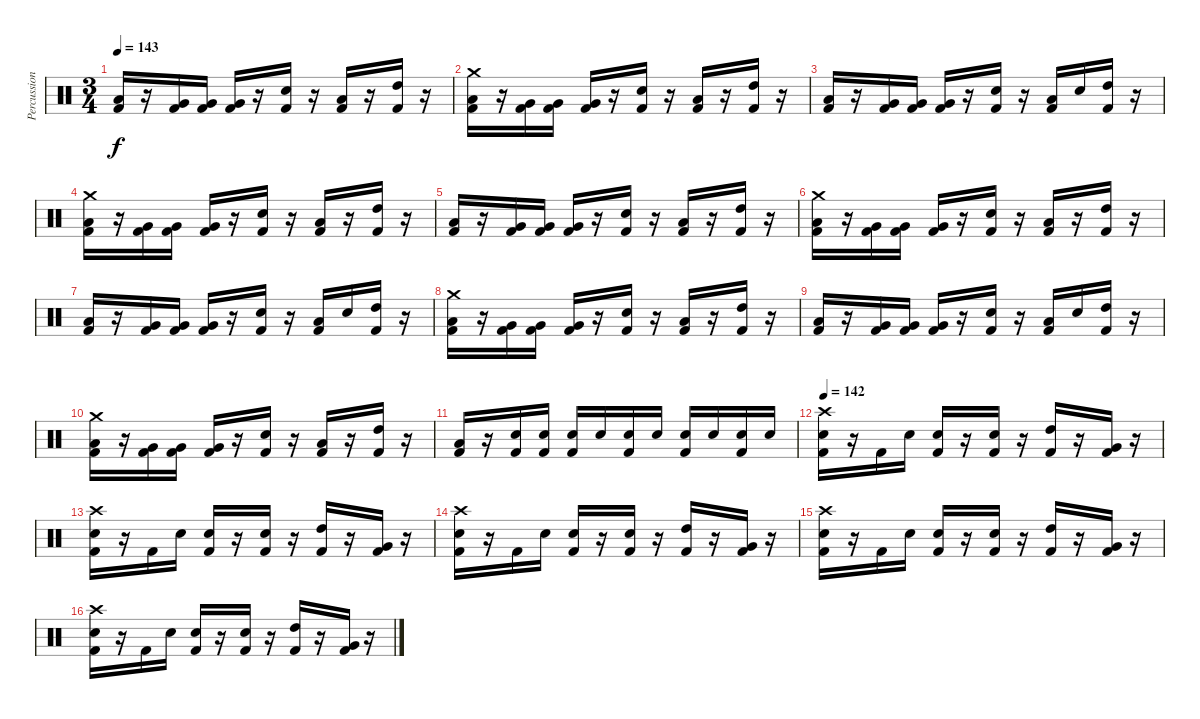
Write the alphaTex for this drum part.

\track ("Percussion" "Percussion") {instrument percussion}
\staff {score}
\articulation defaults
\ts (3 4)
\tempo 143
\clef neutral
\ks c
("Low Tom (hit)" "Kick (hit) 2").16{dy f} r.16 ("Very Low Tom (hit)" "Kick (hit) 2").16 ("Very Low Tom (hit)" "Kick (hit) 2").16 ("Very Low Tom (hit)" "Kick (hit) 2").16 r.16 ("Snare (hit) 2" "Kick (hit) 2").16 r.16 ("Low Tom (hit)" "Kick (hit) 2").16 r.16 ("High Tom (hit)" "Kick (hit) 2").16 r.16 |
("Crash medium (hit)" "Low Tom (hit)" "Kick (hit) 2").16 r.16 ("Very Low Tom (hit)" "Kick (hit) 2").16 ("Very Low Tom (hit)" "Kick (hit) 2").16 ("Very Low Tom (hit)" "Kick (hit) 2").16 r.16 ("Snare (hit) 2" "Kick (hit) 2").16 r.16 ("Low Tom (hit)" "Kick (hit) 2").16 r.16 ("High Tom (hit)" "Kick (hit) 2").16 r.16 |
("Low Tom (hit)" "Kick (hit) 2").16 r.16 ("Very Low Tom (hit)" "Kick (hit) 2").16 ("Very Low Tom (hit)" "Kick (hit) 2").16 ("Very Low Tom (hit)" "Kick (hit) 2").16 r.16 ("Snare (hit) 2" "Kick (hit) 2").16 r.16 ("Low Tom (hit)" "Kick (hit) 2").16 "Electric Snare (hit)".16 ("High Tom (hit)" "Kick (hit) 2").16 r.16 |
("Crash medium (hit)" "Low Tom (hit)" "Kick (hit) 2").16 r.16 ("Very Low Tom (hit)" "Kick (hit) 2").16 ("Very Low Tom (hit)" "Kick (hit) 2").16 ("Very Low Tom (hit)" "Kick (hit) 2").16 r.16 ("Snare (hit) 2" "Kick (hit) 2").16 r.16 ("Low Tom (hit)" "Kick (hit) 2").16 r.16 ("High Tom (hit)" "Kick (hit) 2").16 r.16 |
("Low Tom (hit)" "Kick (hit) 2").16 r.16 ("Very Low Tom (hit)" "Kick (hit) 2").16 ("Very Low Tom (hit)" "Kick (hit) 2").16 ("Very Low Tom (hit)" "Kick (hit) 2").16 r.16 ("Snare (hit) 2" "Kick (hit) 2").16 r.16 ("Low Tom (hit)" "Kick (hit) 2").16 r.16 ("High Tom (hit)" "Kick (hit) 2").16 r.16 |
("Crash medium (hit)" "Low Tom (hit)" "Kick (hit) 2").16 r.16 ("Very Low Tom (hit)" "Kick (hit) 2").16 ("Very Low Tom (hit)" "Kick (hit) 2").16 ("Very Low Tom (hit)" "Kick (hit) 2").16 r.16 ("Snare (hit) 2" "Kick (hit) 2").16 r.16 ("Low Tom (hit)" "Kick (hit) 2").16 r.16 ("High Tom (hit)" "Kick (hit) 2").16 r.16 |
("Low Tom (hit)" "Kick (hit) 2").16 r.16 ("Very Low Tom (hit)" "Kick (hit) 2").16 ("Very Low Tom (hit)" "Kick (hit) 2").16 ("Very Low Tom (hit)" "Kick (hit) 2").16 r.16 ("Snare (hit) 2" "Kick (hit) 2").16 r.16 ("Low Tom (hit)" "Kick (hit) 2").16 "Electric Snare (hit)".16 ("High Tom (hit)" "Kick (hit) 2").16 r.16 |
("Crash medium (hit)" "Low Tom (hit)" "Kick (hit) 2").16 r.16 ("Very Low Tom (hit)" "Kick (hit) 2").16 ("Very Low Tom (hit)" "Kick (hit) 2").16 ("Very Low Tom (hit)" "Kick (hit) 2").16 r.16 ("Snare (hit) 2" "Kick (hit) 2").16 r.16 ("Low Tom (hit)" "Kick (hit) 2").16 r.16 ("High Tom (hit)" "Kick (hit) 2").16 r.16 |
("Low Tom (hit)" "Kick (hit) 2").16 r.16 ("Very Low Tom (hit)" "Kick (hit) 2").16 ("Very Low Tom (hit)" "Kick (hit) 2").16 ("Very Low Tom (hit)" "Kick (hit) 2").16 r.16 ("Snare (hit) 2" "Kick (hit) 2").16 r.16 ("Low Tom (hit)" "Kick (hit) 2").16 "Electric Snare (hit)".16 ("High Tom (hit)" "Kick (hit) 2").16 r.16 |
("Crash medium (hit)" "Low Tom (hit)" "Kick (hit) 2").16 r.16 ("Very Low Tom (hit)" "Kick (hit) 2").16 ("Very Low Tom (hit)" "Kick (hit) 2").16 ("Very Low Tom (hit)" "Kick (hit) 2").16 r.16 ("Snare (hit) 2" "Kick (hit) 2").16 r.16 ("Low Tom (hit)" "Kick (hit) 2").16 r.16 ("High Tom (hit)" "Kick (hit) 2").16 r.16 |
("Low Tom (hit)" "Kick (hit) 2").16 r.16 ("Electric Snare (hit)" "Kick (hit) 2").16 ("Electric Snare (hit)" "Kick (hit) 2").16 ("Electric Snare (hit)" "Kick (hit) 2").16 "Electric Snare (hit)".16 ("Snare (hit) 2" "Kick (hit) 2").16 "Snare (hit) 2".16 ("Electric Snare (hit)" "Kick (hit) 2").16 "Electric Snare (hit)".16 ("Electric Snare (hit)" "Kick (hit) 2").16 "Electric Snare (hit)".16 |
\tempo 142
("Crash high (hit)" "Snare (hit) 2" "Kick (hit) 2").16 r.16 "Kick (hit) 2".16 "Snare (hit) 2".16 ("Snare (hit) 2" "Kick (hit) 2").16 r.16 ("Snare (hit) 2" "Kick (hit) 2").16 r.16 ("High Tom (hit)" "Kick (hit) 2").16 r.16 ("Very Low Tom (hit)" "Kick (hit) 2").16 r.16 |
("Crash high (hit)" "Snare (hit) 2" "Kick (hit) 2").16 r.16 "Kick (hit) 2".16 "Snare (hit) 2".16 ("Snare (hit) 2" "Kick (hit) 2").16 r.16 ("Snare (hit) 2" "Kick (hit) 2").16 r.16 ("High Tom (hit)" "Kick (hit) 2").16 r.16 ("Very Low Tom (hit)" "Kick (hit) 2").16 r.16 |
("Crash high (hit)" "Snare (hit) 2" "Kick (hit) 2").16 r.16 "Kick (hit) 2".16 "Snare (hit) 2".16 ("Snare (hit) 2" "Kick (hit) 2").16 r.16 ("Snare (hit) 2" "Kick (hit) 2").16 r.16 ("High Tom (hit)" "Kick (hit) 2").16 r.16 ("Very Low Tom (hit)" "Kick (hit) 2").16 r.16 |
("Crash high (hit)" "Snare (hit) 2" "Kick (hit) 2").16 r.16 "Kick (hit) 2".16 "Snare (hit) 2".16 ("Snare (hit) 2" "Kick (hit) 2").16 r.16 ("Snare (hit) 2" "Kick (hit) 2").16 r.16 ("High Tom (hit)" "Kick (hit) 2").16 r.16 ("Very Low Tom (hit)" "Kick (hit) 2").16 r.16 |
("Crash high (hit)" "Snare (hit) 2" "Kick (hit) 2").16 r.16 "Kick (hit) 2".16 "Snare (hit) 2".16 ("Snare (hit) 2" "Kick (hit) 2").16 r.16 ("Snare (hit) 2" "Kick (hit) 2").16 r.16 ("High Tom (hit)" "Kick (hit) 2").16 r.16 ("Very Low Tom (hit)" "Kick (hit) 2").16 r.16
